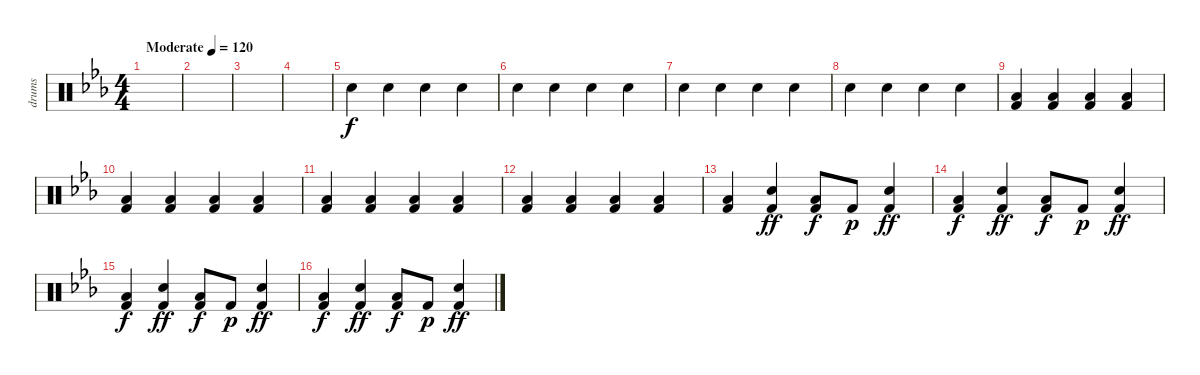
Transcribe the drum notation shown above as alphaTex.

\track ("drums" "drums") {instrument percussion}
\staff {score}
\articulation defaults
\ts (4 4)
\tempo (120 "Moderate")
\clef neutral
\ks cminor
|
|
|
|
"Hand Clap (hit)".4 "Hand Clap (hit)".4 "Hand Clap (hit)".4 "Hand Clap (hit)".4 |
"Hand Clap (hit)".4 "Hand Clap (hit)".4 "Hand Clap (hit)".4 "Hand Clap (hit)".4 |
"Hand Clap (hit)".4 "Hand Clap (hit)".4 "Hand Clap (hit)".4 "Hand Clap (hit)".4 |
"Hand Clap (hit)".4 "Hand Clap (hit)".4 "Hand Clap (hit)".4 "Hand Clap (hit)".4 |
("Kick (hit) 2" "Low Floor Tom (hit)").4{dy f} ("Kick (hit) 2" "Low Floor Tom (hit)").4 ("Kick (hit) 2" "Low Floor Tom (hit)").4 ("Kick (hit) 2" "Low Floor Tom (hit)").4 |
("Kick (hit) 2" "Low Floor Tom (hit)").4 ("Kick (hit) 2" "Low Floor Tom (hit)").4 ("Kick (hit) 2" "Low Floor Tom (hit)").4 ("Kick (hit) 2" "Low Floor Tom (hit)").4 |
("Kick (hit) 2" "Low Floor Tom (hit)").4 ("Kick (hit) 2" "Low Floor Tom (hit)").4 ("Kick (hit) 2" "Low Floor Tom (hit)").4 ("Kick (hit) 2" "Low Floor Tom (hit)").4 |
("Kick (hit) 2" "Low Floor Tom (hit)").4 ("Kick (hit) 2" "Low Floor Tom (hit)").4 ("Kick (hit) 2" "Low Floor Tom (hit)").4 ("Kick (hit) 2" "Low Floor Tom (hit)").4 |
("Kick (hit) 2" "Low Floor Tom (hit)").4 ("Kick (hit) 2" "Hand Clap (hit)").4{dy ff} ("Kick (hit) 2" "Low Floor Tom (hit)").8{dy f} "Kick (hit) 2".8{dy p} ("Kick (hit) 2" "Hand Clap (hit)").4{dy ff} |
("Kick (hit) 2" "Low Floor Tom (hit)").4{dy f} ("Kick (hit) 2" "Hand Clap (hit)").4{dy ff} ("Kick (hit) 2" "Low Floor Tom (hit)").8{dy f} "Kick (hit) 2".8{dy p} ("Kick (hit) 2" "Hand Clap (hit)").4{dy ff} |
("Kick (hit) 2" "Low Floor Tom (hit)").4{dy f} ("Kick (hit) 2" "Hand Clap (hit)").4{dy ff} ("Kick (hit) 2" "Low Floor Tom (hit)").8{dy f} "Kick (hit) 2".8{dy p} ("Kick (hit) 2" "Hand Clap (hit)").4{dy ff} |
("Kick (hit) 2" "Low Floor Tom (hit)").4{dy f} ("Kick (hit) 2" "Hand Clap (hit)").4{dy ff} ("Kick (hit) 2" "Low Floor Tom (hit)").8{dy f} "Kick (hit) 2".8{dy p} ("Kick (hit) 2" "Hand Clap (hit)").4{dy ff}
